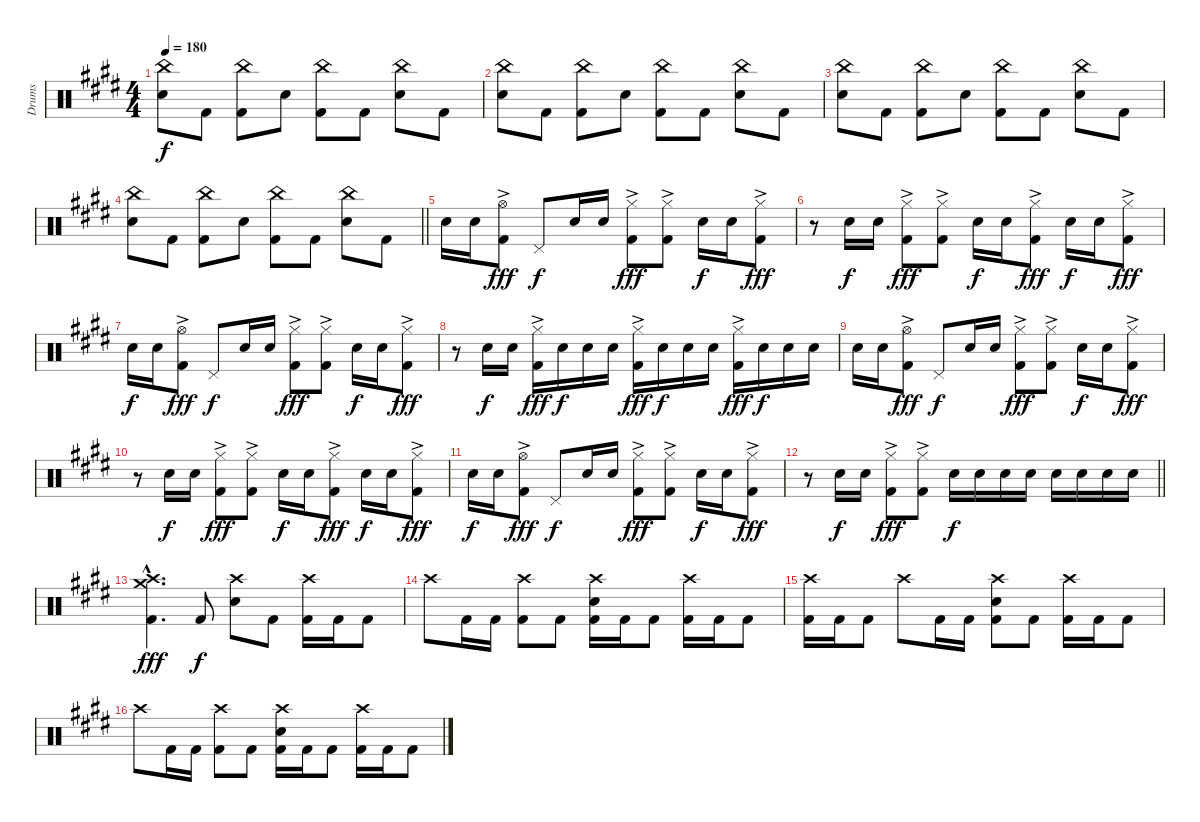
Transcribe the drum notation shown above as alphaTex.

\track ("Drums" "Drums") {instrument percussion}
\staff {score}
\articulation defaults
\ts (4 4)
\tempo 180
\clef neutral
\ks c#minor
("China (hit)" "Snare (hit) 2").8{dy f} "Kick (hit) 2".8 ("China (hit)" "Kick (hit) 2").8 "Snare (hit) 2".8 ("China (hit)" "Kick (hit) 2").8 "Kick (hit) 2".8 ("China (hit)" "Snare (hit) 2").8 "Kick (hit) 2".8 |
("China (hit)" "Snare (hit) 2").8 "Kick (hit) 2".8 ("China (hit)" "Kick (hit) 2").8 "Snare (hit) 2".8 ("China (hit)" "Kick (hit) 2").8 "Kick (hit) 2".8 ("China (hit)" "Snare (hit) 2").8 "Kick (hit) 2".8 |
("China (hit)" "Snare (hit) 2").8 "Kick (hit) 2".8 ("China (hit)" "Kick (hit) 2").8 "Snare (hit) 2".8 ("China (hit)" "Kick (hit) 2").8 "Kick (hit) 2".8 ("China (hit)" "Snare (hit) 2").8 "Kick (hit) 2".8 |
\barLineRight lightlight
("China (hit)" "Snare (hit) 2").8 "Kick (hit) 2".8 ("China (hit)" "Kick (hit) 2").8 "Snare (hit) 2".8 ("China (hit)" "Kick (hit) 2").8 "Kick (hit) 2".8 ("China (hit)" "Snare (hit) 2").8 "Kick (hit) 2".8 |
"Snare (hit) 2".16 "Snare (hit) 2".16 ("Hi-Hat (open)"{ac} "Kick (hit) 2").8{dy fff} "Pedal Hi-Hat (hit)".8{dy f} "Snare (hit) 2".16 "Snare (hit) 2".16 ("Hi-Hat (closed)"{ac} "Kick (hit) 2").8{dy fff} ("Hi-Hat (closed)"{ac} "Kick (hit) 2").8 "Snare (hit) 2".16{dy f} "Snare (hit) 2".16 ("Hi-Hat (closed)"{ac} "Kick (hit) 2").8{dy fff} |
r.8 "Snare (hit) 2".16{dy f} "Snare (hit) 2".16 ("Hi-Hat (closed)"{ac} "Kick (hit) 2").8{dy fff} ("Hi-Hat (closed)"{ac} "Kick (hit) 2").8 "Snare (hit) 2".16{dy f} "Snare (hit) 2".16 ("Hi-Hat (closed)"{ac} "Kick (hit) 2").8{dy fff} "Snare (hit) 2".16{dy f} "Snare (hit) 2".16 ("Hi-Hat (closed)"{ac} "Kick (hit) 2").8{dy fff} |
"Snare (hit) 2".16{dy f} "Snare (hit) 2".16 ("Hi-Hat (open)"{ac} "Kick (hit) 2").8{dy fff} "Pedal Hi-Hat (hit)".8{dy f} "Snare (hit) 2".16 "Snare (hit) 2".16 ("Hi-Hat (closed)"{ac} "Kick (hit) 2").8{dy fff} ("Hi-Hat (closed)"{ac} "Kick (hit) 2").8 "Snare (hit) 2".16{dy f} "Snare (hit) 2".16 ("Hi-Hat (closed)"{ac} "Kick (hit) 2").8{dy fff} |
r.8 "Snare (hit) 2".16{dy f} "Snare (hit) 2".16 ("Hi-Hat (closed)"{ac} "Kick (hit) 2").16{dy fff} "Snare (hit) 2".16{dy f} "Snare (hit) 2".16 "Snare (hit) 2".16 ("Hi-Hat (closed)"{ac} "Kick (hit) 2").16{dy fff} "Snare (hit) 2".16{dy f} "Snare (hit) 2".16 "Snare (hit) 2".16 ("Hi-Hat (closed)"{ac} "Kick (hit) 2").16{dy fff} "Snare (hit) 2".16{dy f} "Snare (hit) 2".16 "Snare (hit) 2".16 |
"Snare (hit) 2".16 "Snare (hit) 2".16 ("Hi-Hat (open)"{ac} "Kick (hit) 2").8{dy fff} "Pedal Hi-Hat (hit)".8{dy f} "Snare (hit) 2".16 "Snare (hit) 2".16 ("Hi-Hat (closed)"{ac} "Kick (hit) 2").8{dy fff} ("Hi-Hat (closed)"{ac} "Kick (hit) 2").8 "Snare (hit) 2".16{dy f} "Snare (hit) 2".16 ("Hi-Hat (closed)"{ac} "Kick (hit) 2").8{dy fff} |
r.8 "Snare (hit) 2".16{dy f} "Snare (hit) 2".16 ("Hi-Hat (closed)"{ac} "Kick (hit) 2").8{dy fff} ("Hi-Hat (closed)"{ac} "Kick (hit) 2").8 "Snare (hit) 2".16{dy f} "Snare (hit) 2".16 ("Hi-Hat (closed)"{ac} "Kick (hit) 2").8{dy fff} "Snare (hit) 2".16{dy f} "Snare (hit) 2".16 ("Hi-Hat (closed)"{ac} "Kick (hit) 2").8{dy fff} |
"Snare (hit) 2".16{dy f} "Snare (hit) 2".16 ("Hi-Hat (open)"{ac} "Kick (hit) 2").8{dy fff} "Pedal Hi-Hat (hit)".8{dy f} "Snare (hit) 2".16 "Snare (hit) 2".16 ("Hi-Hat (closed)"{ac} "Kick (hit) 2").8{dy fff} ("Hi-Hat (closed)"{ac} "Kick (hit) 2").8 "Snare (hit) 2".16{dy f} "Snare (hit) 2".16 ("Hi-Hat (closed)"{ac} "Kick (hit) 2").8{dy fff} |
\barLineRight lightlight
r.8 "Snare (hit) 2".16{dy f} "Snare (hit) 2".16 ("Hi-Hat (closed)"{ac} "Kick (hit) 2").8{dy fff} ("Hi-Hat (closed)"{ac} "Kick (hit) 2").8 "Snare (hit) 2".16{dy f} "Snare (hit) 2".16 "Snare (hit) 2".16 "Snare (hit) 2".16 "Snare (hit) 2".16 "Snare (hit) 2".16 "Snare (hit) 2".16 "Snare (hit) 2".16 |
("Crash high (hit)"{hac} "Crash medium (hit)"{hac} "Kick (hit) 2"{hac}).4{d dy fff} "Kick (hit) 2".8{dy f} ("Crash high (hit)" "Snare (hit) 2").8 "Kick (hit) 2".8 ("Crash high (hit)" "Kick (hit) 2").16 "Kick (hit) 2".16 "Kick (hit) 2".8 |
"Crash high (hit)".8 "Kick (hit) 2".16 "Kick (hit) 2".16 ("Crash high (hit)" "Kick (hit) 2").8 "Kick (hit) 2".8 ("Crash high (hit)" "Snare (hit) 2" "Kick (hit) 2").16 "Kick (hit) 2".16 "Kick (hit) 2".8 ("Crash high (hit)" "Kick (hit) 2").16 "Kick (hit) 2".16 "Kick (hit) 2".8 |
("Crash high (hit)" "Kick (hit) 2").16 "Kick (hit) 2".16 "Kick (hit) 2".8 "Crash high (hit)".8 "Kick (hit) 2".16 "Kick (hit) 2".16 ("Crash high (hit)" "Snare (hit) 2" "Kick (hit) 2").8 "Kick (hit) 2".8 ("Crash high (hit)" "Kick (hit) 2").16 "Kick (hit) 2".16 "Kick (hit) 2".8 |
"Crash high (hit)".8 "Kick (hit) 2".16 "Kick (hit) 2".16 ("Crash high (hit)" "Kick (hit) 2").8 "Kick (hit) 2".8 ("Crash high (hit)" "Snare (hit) 2" "Kick (hit) 2").16 "Kick (hit) 2".16 "Kick (hit) 2".8 ("Crash high (hit)" "Kick (hit) 2").16 "Kick (hit) 2".16 "Kick (hit) 2".8
